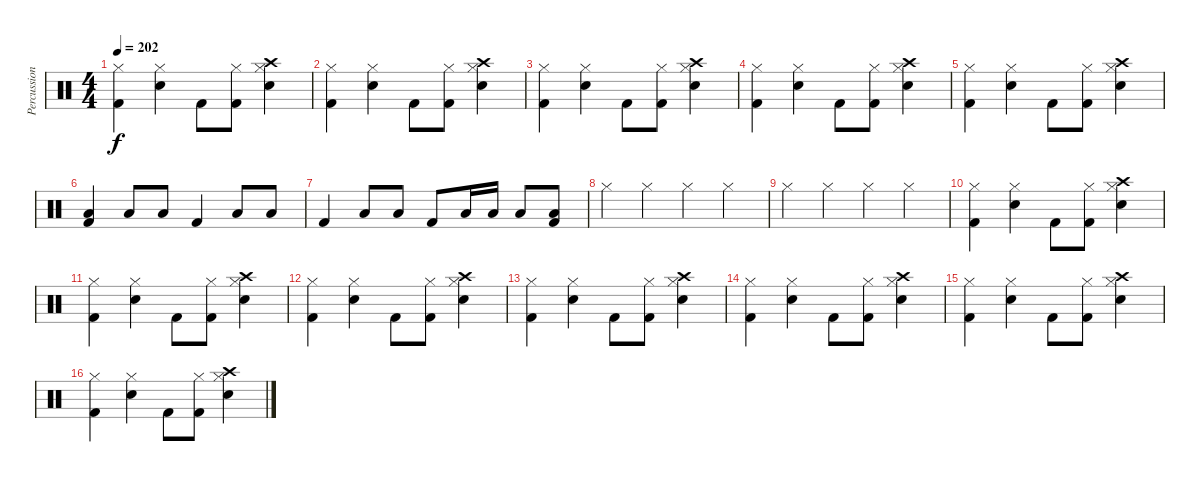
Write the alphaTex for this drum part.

\track ("Percussioni" "Percussion") {instrument percussion}
\staff {score}
\articulation defaults
\ts (4 4)
\tempo 202
\clef neutral
\ks c
("Hi-Hat (closed)" "Kick (hit) 2").4{dy f} ("Hi-Hat (closed)" "Snare (hit) 2").4 "Kick (hit) 2".8 ("Hi-Hat (closed)" "Kick (hit) 2").8 ("Hi-Hat (closed)" "Crash high (hit)" "Snare (hit) 2").4 |
("Hi-Hat (closed)" "Kick (hit) 2").4 ("Hi-Hat (closed)" "Snare (hit) 2").4 "Kick (hit) 2".8 ("Hi-Hat (closed)" "Kick (hit) 2").8 ("Hi-Hat (closed)" "Crash high (hit)" "Snare (hit) 2").4 |
("Hi-Hat (closed)" "Kick (hit) 2").4 ("Hi-Hat (closed)" "Snare (hit) 2").4 "Kick (hit) 2".8 ("Hi-Hat (closed)" "Kick (hit) 2").8 ("Hi-Hat (closed)" "Crash high (hit)" "Snare (hit) 2").4 |
("Hi-Hat (closed)" "Kick (hit) 2").4 ("Hi-Hat (closed)" "Snare (hit) 2").4 "Kick (hit) 2".8 ("Hi-Hat (closed)" "Kick (hit) 2").8 ("Hi-Hat (closed)" "Crash high (hit)" "Snare (hit) 2").4 |
("Hi-Hat (closed)" "Kick (hit) 2").4 ("Hi-Hat (closed)" "Snare (hit) 2").4 "Kick (hit) 2".8 ("Hi-Hat (closed)" "Kick (hit) 2").8 ("Hi-Hat (closed)" "Crash high (hit)" "Snare (hit) 2").4 |
("Low Tom (hit)" "Kick (hit) 2").4 "Low Tom (hit)".8 "Low Tom (hit)".8 "Kick (hit) 2".4 "Low Tom (hit)".8 "Low Tom (hit)".8 |
"Kick (hit) 2".4 "Low Tom (hit)".8 "Low Tom (hit)".8 "Kick (hit) 2".8 "Low Tom (hit)".16 "Low Tom (hit)".16 "Low Tom (hit)".8 ("Low Tom (hit)" "Kick (hit) 2").8 |
"Hi-Hat (closed)".4 "Hi-Hat (closed)".4 "Hi-Hat (closed)".4 "Hi-Hat (closed)".4 |
"Hi-Hat (closed)".4 "Hi-Hat (closed)".4 "Hi-Hat (closed)".4 "Hi-Hat (closed)".4 |
("Hi-Hat (closed)" "Kick (hit) 2").4 ("Hi-Hat (closed)" "Snare (hit) 2").4 "Kick (hit) 2".8 ("Hi-Hat (closed)" "Kick (hit) 2").8 ("Hi-Hat (closed)" "Crash high (hit)" "Snare (hit) 2").4 |
("Hi-Hat (closed)" "Kick (hit) 2").4 ("Hi-Hat (closed)" "Snare (hit) 2").4 "Kick (hit) 2".8 ("Hi-Hat (closed)" "Kick (hit) 2").8 ("Hi-Hat (closed)" "Crash high (hit)" "Snare (hit) 2").4 |
("Hi-Hat (closed)" "Kick (hit) 2").4 ("Hi-Hat (closed)" "Snare (hit) 2").4 "Kick (hit) 2".8 ("Hi-Hat (closed)" "Kick (hit) 2").8 ("Hi-Hat (closed)" "Crash high (hit)" "Snare (hit) 2").4 |
("Hi-Hat (closed)" "Kick (hit) 2").4 ("Hi-Hat (closed)" "Snare (hit) 2").4 "Kick (hit) 2".8 ("Hi-Hat (closed)" "Kick (hit) 2").8 ("Hi-Hat (closed)" "Crash high (hit)" "Snare (hit) 2").4 |
("Hi-Hat (closed)" "Kick (hit) 2").4 ("Hi-Hat (closed)" "Snare (hit) 2").4 "Kick (hit) 2".8 ("Hi-Hat (closed)" "Kick (hit) 2").8 ("Hi-Hat (closed)" "Crash high (hit)" "Snare (hit) 2").4 |
("Hi-Hat (closed)" "Kick (hit) 2").4 ("Hi-Hat (closed)" "Snare (hit) 2").4 "Kick (hit) 2".8 ("Hi-Hat (closed)" "Kick (hit) 2").8 ("Hi-Hat (closed)" "Crash high (hit)" "Snare (hit) 2").4 |
("Hi-Hat (closed)" "Kick (hit) 2").4 ("Hi-Hat (closed)" "Snare (hit) 2").4 "Kick (hit) 2".8 ("Hi-Hat (closed)" "Kick (hit) 2").8 ("Hi-Hat (closed)" "Crash high (hit)" "Snare (hit) 2").4
